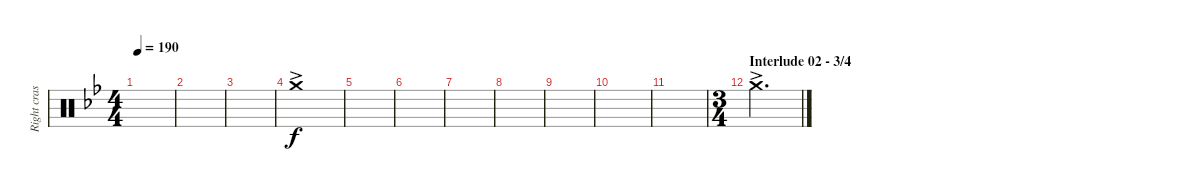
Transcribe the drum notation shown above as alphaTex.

\track ("Right crash" "Right cras") {instrument percussion}
\staff {score}
\articulation defaults
\ts (4 4)
\tempo 190
\clef neutral
\ks bb
|
|
|
"Crash medium (hit)"{ac}.1 |
|
|
|
|
|
|
|
\ts (3 4)
\section ("" "Interlude 02 - 3/4")
"Crash medium (hit)"{ac}.2{d}
